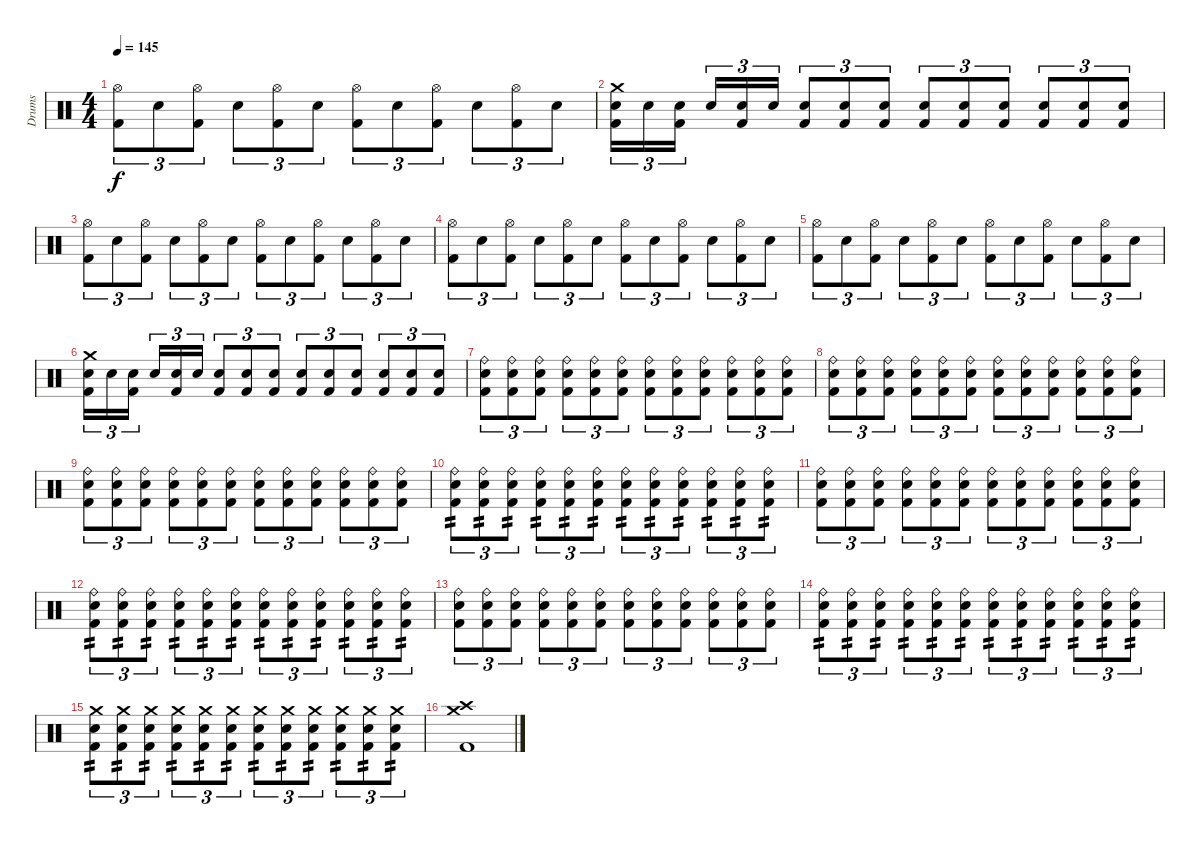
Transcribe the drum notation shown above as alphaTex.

\track ("Drums" "Drums") {instrument percussion}
\staff {score}
\articulation defaults
\ts (4 4)
\tempo 145
\clef neutral
\ks c
("Hi-Hat (open)" "Kick (hit) 2").8{tu (3 2) dy f} "Electric Snare (hit)".8{tu (3 2)} ("Hi-Hat (open)" "Kick (hit) 2").8{tu (3 2)} "Electric Snare (hit)".8{tu (3 2)} ("Hi-Hat (open)" "Kick (hit) 2").8{tu (3 2)} "Electric Snare (hit)".8{tu (3 2)} ("Hi-Hat (open)" "Kick (hit) 2").8{tu (3 2)} "Electric Snare (hit)".8{tu (3 2)} ("Hi-Hat (open)" "Kick (hit) 2").8{tu (3 2)} "Electric Snare (hit)".8{tu (3 2)} ("Hi-Hat (open)" "Kick (hit) 2").8{tu (3 2)} "Electric Snare (hit)".8{tu (3 2)} |
("Crash medium (hit)" "Electric Snare (hit)" "Kick (hit) 2").16{tu (3 2)} "Electric Snare (hit)".16{tu (3 2)} ("Electric Snare (hit)" "Kick (hit) 2").16{tu (3 2) beam splitsecondary} "Electric Snare (hit)".16{tu (3 2)} ("Electric Snare (hit)" "Kick (hit) 2").16{tu (3 2)} "Electric Snare (hit)".16{tu (3 2)} ("Electric Snare (hit)" "Kick (hit) 2").8{tu (3 2)} ("Electric Snare (hit)" "Kick (hit) 2").8{tu (3 2)} ("Electric Snare (hit)" "Kick (hit) 2").8{tu (3 2)} ("Electric Snare (hit)" "Kick (hit) 2").8{tu (3 2)} ("Electric Snare (hit)" "Kick (hit) 2").8{tu (3 2)} ("Electric Snare (hit)" "Kick (hit) 2").8{tu (3 2)} ("Electric Snare (hit)" "Kick (hit) 2").8{tu (3 2)} ("Electric Snare (hit)" "Kick (hit) 2").8{tu (3 2)} ("Electric Snare (hit)" "Kick (hit) 2").8{tu (3 2)} |
("Hi-Hat (open)" "Kick (hit) 2").8{tu (3 2)} "Electric Snare (hit)".8{tu (3 2)} ("Hi-Hat (open)" "Kick (hit) 2").8{tu (3 2)} "Electric Snare (hit)".8{tu (3 2)} ("Hi-Hat (open)" "Kick (hit) 2").8{tu (3 2)} "Electric Snare (hit)".8{tu (3 2)} ("Hi-Hat (open)" "Kick (hit) 2").8{tu (3 2)} "Electric Snare (hit)".8{tu (3 2)} ("Hi-Hat (open)" "Kick (hit) 2").8{tu (3 2)} "Electric Snare (hit)".8{tu (3 2)} ("Hi-Hat (open)" "Kick (hit) 2").8{tu (3 2)} "Electric Snare (hit)".8{tu (3 2)} |
("Hi-Hat (open)" "Kick (hit) 2").8{tu (3 2)} "Electric Snare (hit)".8{tu (3 2)} ("Hi-Hat (open)" "Kick (hit) 2").8{tu (3 2)} "Electric Snare (hit)".8{tu (3 2)} ("Hi-Hat (open)" "Kick (hit) 2").8{tu (3 2)} "Electric Snare (hit)".8{tu (3 2)} ("Hi-Hat (open)" "Kick (hit) 2").8{tu (3 2)} "Electric Snare (hit)".8{tu (3 2)} ("Hi-Hat (open)" "Kick (hit) 2").8{tu (3 2)} "Electric Snare (hit)".8{tu (3 2)} ("Hi-Hat (open)" "Kick (hit) 2").8{tu (3 2)} "Electric Snare (hit)".8{tu (3 2)} |
("Hi-Hat (open)" "Kick (hit) 2").8{tu (3 2)} "Electric Snare (hit)".8{tu (3 2)} ("Hi-Hat (open)" "Kick (hit) 2").8{tu (3 2)} "Electric Snare (hit)".8{tu (3 2)} ("Hi-Hat (open)" "Kick (hit) 2").8{tu (3 2)} "Electric Snare (hit)".8{tu (3 2)} ("Hi-Hat (open)" "Kick (hit) 2").8{tu (3 2)} "Electric Snare (hit)".8{tu (3 2)} ("Hi-Hat (open)" "Kick (hit) 2").8{tu (3 2)} "Electric Snare (hit)".8{tu (3 2)} ("Hi-Hat (open)" "Kick (hit) 2").8{tu (3 2)} "Electric Snare (hit)".8{tu (3 2)} |
("Crash medium (hit)" "Electric Snare (hit)" "Kick (hit) 2").16{tu (3 2)} "Electric Snare (hit)".16{tu (3 2)} ("Electric Snare (hit)" "Kick (hit) 2").16{tu (3 2) beam splitsecondary} "Electric Snare (hit)".16{tu (3 2)} ("Electric Snare (hit)" "Kick (hit) 2").16{tu (3 2)} "Electric Snare (hit)".16{tu (3 2)} ("Electric Snare (hit)" "Kick (hit) 2").8{tu (3 2)} ("Electric Snare (hit)" "Kick (hit) 2").8{tu (3 2)} ("Electric Snare (hit)" "Kick (hit) 2").8{tu (3 2)} ("Electric Snare (hit)" "Kick (hit) 2").8{tu (3 2)} ("Electric Snare (hit)" "Kick (hit) 2").8{tu (3 2)} ("Electric Snare (hit)" "Kick (hit) 2").8{tu (3 2)} ("Electric Snare (hit)" "Kick (hit) 2").8{tu (3 2)} ("Electric Snare (hit)" "Kick (hit) 2").8{tu (3 2)} ("Electric Snare (hit)" "Kick (hit) 2").8{tu (3 2)} |
("Ride (bell)" "Electric Snare (hit)" "Kick (hit) 2").8{tu (3 2)} ("Ride (bell)" "Electric Snare (hit)" "Kick (hit) 2").8{tu (3 2)} ("Ride (bell)" "Electric Snare (hit)" "Kick (hit) 2").8{tu (3 2)} ("Ride (bell)" "Electric Snare (hit)" "Kick (hit) 2").8{tu (3 2)} ("Ride (bell)" "Electric Snare (hit)" "Kick (hit) 2").8{tu (3 2)} ("Ride (bell)" "Electric Snare (hit)" "Kick (hit) 2").8{tu (3 2)} ("Ride (bell)" "Electric Snare (hit)" "Kick (hit) 2").8{tu (3 2)} ("Ride (bell)" "Electric Snare (hit)" "Kick (hit) 2").8{tu (3 2)} ("Ride (bell)" "Electric Snare (hit)" "Kick (hit) 2").8{tu (3 2)} ("Ride (bell)" "Electric Snare (hit)" "Kick (hit) 2").8{tu (3 2)} ("Ride (bell)" "Electric Snare (hit)" "Kick (hit) 2").8{tu (3 2)} ("Ride (bell)" "Electric Snare (hit)" "Kick (hit) 2").8{tu (3 2)} |
("Ride (bell)" "Electric Snare (hit)" "Kick (hit) 2").8{tu (3 2)} ("Ride (bell)" "Electric Snare (hit)" "Kick (hit) 2").8{tu (3 2)} ("Ride (bell)" "Electric Snare (hit)" "Kick (hit) 2").8{tu (3 2)} ("Ride (bell)" "Electric Snare (hit)" "Kick (hit) 2").8{tu (3 2)} ("Ride (bell)" "Electric Snare (hit)" "Kick (hit) 2").8{tu (3 2)} ("Ride (bell)" "Electric Snare (hit)" "Kick (hit) 2").8{tu (3 2)} ("Ride (bell)" "Electric Snare (hit)" "Kick (hit) 2").8{tu (3 2)} ("Ride (bell)" "Electric Snare (hit)" "Kick (hit) 2").8{tu (3 2)} ("Ride (bell)" "Electric Snare (hit)" "Kick (hit) 2").8{tu (3 2)} ("Ride (bell)" "Electric Snare (hit)" "Kick (hit) 2").8{tu (3 2)} ("Ride (bell)" "Electric Snare (hit)" "Kick (hit) 2").8{tu (3 2)} ("Ride (bell)" "Electric Snare (hit)" "Kick (hit) 2").8{tu (3 2)} |
("Ride (bell)" "Electric Snare (hit)" "Kick (hit) 2").8{tu (3 2)} ("Ride (bell)" "Electric Snare (hit)" "Kick (hit) 2").8{tu (3 2)} ("Ride (bell)" "Electric Snare (hit)" "Kick (hit) 2").8{tu (3 2)} ("Ride (bell)" "Electric Snare (hit)" "Kick (hit) 2").8{tu (3 2)} ("Ride (bell)" "Electric Snare (hit)" "Kick (hit) 2").8{tu (3 2)} ("Ride (bell)" "Electric Snare (hit)" "Kick (hit) 2").8{tu (3 2)} ("Ride (bell)" "Electric Snare (hit)" "Kick (hit) 2").8{tu (3 2)} ("Ride (bell)" "Electric Snare (hit)" "Kick (hit) 2").8{tu (3 2)} ("Ride (bell)" "Electric Snare (hit)" "Kick (hit) 2").8{tu (3 2)} ("Ride (bell)" "Electric Snare (hit)" "Kick (hit) 2").8{tu (3 2)} ("Ride (bell)" "Electric Snare (hit)" "Kick (hit) 2").8{tu (3 2)} ("Ride (bell)" "Electric Snare (hit)" "Kick (hit) 2").8{tu (3 2)} |
("Ride (bell)" "Electric Snare (hit)" "Kick (hit) 2").8{tu (3 2) tp 2} ("Ride (bell)" "Electric Snare (hit)" "Kick (hit) 2").8{tu (3 2) tp 2} ("Ride (bell)" "Electric Snare (hit)" "Kick (hit) 2").8{tu (3 2) tp 2} ("Ride (bell)" "Electric Snare (hit)" "Kick (hit) 2").8{tu (3 2) tp 2} ("Ride (bell)" "Electric Snare (hit)" "Kick (hit) 2").8{tu (3 2) tp 2} ("Ride (bell)" "Electric Snare (hit)" "Kick (hit) 2").8{tu (3 2) tp 2} ("Ride (bell)" "Electric Snare (hit)" "Kick (hit) 2").8{tu (3 2) tp 2} ("Ride (bell)" "Electric Snare (hit)" "Kick (hit) 2").8{tu (3 2) tp 2} ("Ride (bell)" "Electric Snare (hit)" "Kick (hit) 2").8{tu (3 2) tp 2} ("Ride (bell)" "Electric Snare (hit)" "Kick (hit) 2").8{tu (3 2) tp 2} ("Ride (bell)" "Electric Snare (hit)" "Kick (hit) 2").8{tu (3 2) tp 2} ("Ride (bell)" "Electric Snare (hit)" "Kick (hit) 2").8{tu (3 2) tp 2} |
("Ride (bell)" "Electric Snare (hit)" "Kick (hit) 2").8{tu (3 2)} ("Ride (bell)" "Electric Snare (hit)" "Kick (hit) 2").8{tu (3 2)} ("Ride (bell)" "Electric Snare (hit)" "Kick (hit) 2").8{tu (3 2)} ("Ride (bell)" "Electric Snare (hit)" "Kick (hit) 2").8{tu (3 2)} ("Ride (bell)" "Electric Snare (hit)" "Kick (hit) 2").8{tu (3 2)} ("Ride (bell)" "Electric Snare (hit)" "Kick (hit) 2").8{tu (3 2)} ("Ride (bell)" "Electric Snare (hit)" "Kick (hit) 2").8{tu (3 2)} ("Ride (bell)" "Electric Snare (hit)" "Kick (hit) 2").8{tu (3 2)} ("Ride (bell)" "Electric Snare (hit)" "Kick (hit) 2").8{tu (3 2)} ("Ride (bell)" "Electric Snare (hit)" "Kick (hit) 2").8{tu (3 2)} ("Ride (bell)" "Electric Snare (hit)" "Kick (hit) 2").8{tu (3 2)} ("Ride (bell)" "Electric Snare (hit)" "Kick (hit) 2").8{tu (3 2)} |
("Ride (bell)" "Electric Snare (hit)" "Kick (hit) 2").8{tu (3 2) tp 2} ("Ride (bell)" "Electric Snare (hit)" "Kick (hit) 2").8{tu (3 2) tp 2} ("Ride (bell)" "Electric Snare (hit)" "Kick (hit) 2").8{tu (3 2) tp 2} ("Ride (bell)" "Electric Snare (hit)" "Kick (hit) 2").8{tu (3 2) tp 2} ("Ride (bell)" "Electric Snare (hit)" "Kick (hit) 2").8{tu (3 2) tp 2} ("Ride (bell)" "Electric Snare (hit)" "Kick (hit) 2").8{tu (3 2) tp 2} ("Ride (bell)" "Electric Snare (hit)" "Kick (hit) 2").8{tu (3 2) tp 2} ("Ride (bell)" "Electric Snare (hit)" "Kick (hit) 2").8{tu (3 2) tp 2} ("Ride (bell)" "Electric Snare (hit)" "Kick (hit) 2").8{tu (3 2) tp 2} ("Ride (bell)" "Electric Snare (hit)" "Kick (hit) 2").8{tu (3 2) tp 2} ("Ride (bell)" "Electric Snare (hit)" "Kick (hit) 2").8{tu (3 2) tp 2} ("Ride (bell)" "Electric Snare (hit)" "Kick (hit) 2").8{tu (3 2) tp 2} |
("Ride (bell)" "Electric Snare (hit)" "Kick (hit) 2").8{tu (3 2)} ("Ride (bell)" "Electric Snare (hit)" "Kick (hit) 2").8{tu (3 2)} ("Ride (bell)" "Electric Snare (hit)" "Kick (hit) 2").8{tu (3 2)} ("Ride (bell)" "Electric Snare (hit)" "Kick (hit) 2").8{tu (3 2)} ("Ride (bell)" "Electric Snare (hit)" "Kick (hit) 2").8{tu (3 2)} ("Ride (bell)" "Electric Snare (hit)" "Kick (hit) 2").8{tu (3 2)} ("Ride (bell)" "Electric Snare (hit)" "Kick (hit) 2").8{tu (3 2)} ("Ride (bell)" "Electric Snare (hit)" "Kick (hit) 2").8{tu (3 2)} ("Ride (bell)" "Electric Snare (hit)" "Kick (hit) 2").8{tu (3 2)} ("Ride (bell)" "Electric Snare (hit)" "Kick (hit) 2").8{tu (3 2)} ("Ride (bell)" "Electric Snare (hit)" "Kick (hit) 2").8{tu (3 2)} ("Ride (bell)" "Electric Snare (hit)" "Kick (hit) 2").8{tu (3 2)} |
("Ride (bell)" "Electric Snare (hit)" "Kick (hit) 2").8{tu (3 2) tp 2} ("Ride (bell)" "Electric Snare (hit)" "Kick (hit) 2").8{tu (3 2) tp 2} ("Ride (bell)" "Electric Snare (hit)" "Kick (hit) 2").8{tu (3 2) tp 2} ("Ride (bell)" "Electric Snare (hit)" "Kick (hit) 2").8{tu (3 2) tp 2} ("Ride (bell)" "Electric Snare (hit)" "Kick (hit) 2").8{tu (3 2) tp 2} ("Ride (bell)" "Electric Snare (hit)" "Kick (hit) 2").8{tu (3 2) tp 2} ("Ride (bell)" "Electric Snare (hit)" "Kick (hit) 2").8{tu (3 2) tp 2} ("Ride (bell)" "Electric Snare (hit)" "Kick (hit) 2").8{tu (3 2) tp 2} ("Ride (bell)" "Electric Snare (hit)" "Kick (hit) 2").8{tu (3 2) tp 2} ("Ride (bell)" "Electric Snare (hit)" "Kick (hit) 2").8{tu (3 2) tp 2} ("Ride (bell)" "Electric Snare (hit)" "Kick (hit) 2").8{tu (3 2) tp 2} ("Ride (bell)" "Electric Snare (hit)" "Kick (hit) 2").8{tu (3 2) tp 2} |
("Crash medium (hit)" "Electric Snare (hit)" "Kick (hit) 2").8{tu (3 2) tp 2} ("Crash medium (hit)" "Electric Snare (hit)" "Kick (hit) 2").8{tu (3 2) tp 2} ("Crash medium (hit)" "Electric Snare (hit)" "Kick (hit) 2").8{tu (3 2) tp 2} ("Crash medium (hit)" "Electric Snare (hit)" "Kick (hit) 2").8{tu (3 2) tp 2} ("Crash medium (hit)" "Electric Snare (hit)" "Kick (hit) 2").8{tu (3 2) tp 2} ("Crash medium (hit)" "Electric Snare (hit)" "Kick (hit) 2").8{tu (3 2) tp 2} ("Crash medium (hit)" "Electric Snare (hit)" "Kick (hit) 2").8{tu (3 2) tp 2} ("Crash medium (hit)" "Electric Snare (hit)" "Kick (hit) 2").8{tu (3 2) tp 2} ("Crash medium (hit)" "Electric Snare (hit)" "Kick (hit) 2").8{tu (3 2) tp 2} ("Crash medium (hit)" "Electric Snare (hit)" "Kick (hit) 2").8{tu (3 2) tp 2} ("Crash medium (hit)" "Electric Snare (hit)" "Kick (hit) 2").8{tu (3 2) tp 2} ("Crash medium (hit)" "Electric Snare (hit)" "Kick (hit) 2").8{tu (3 2) tp 2} |
("Crash medium (hit)" "Crash high (hit)" "Kick (hit) 2").1
